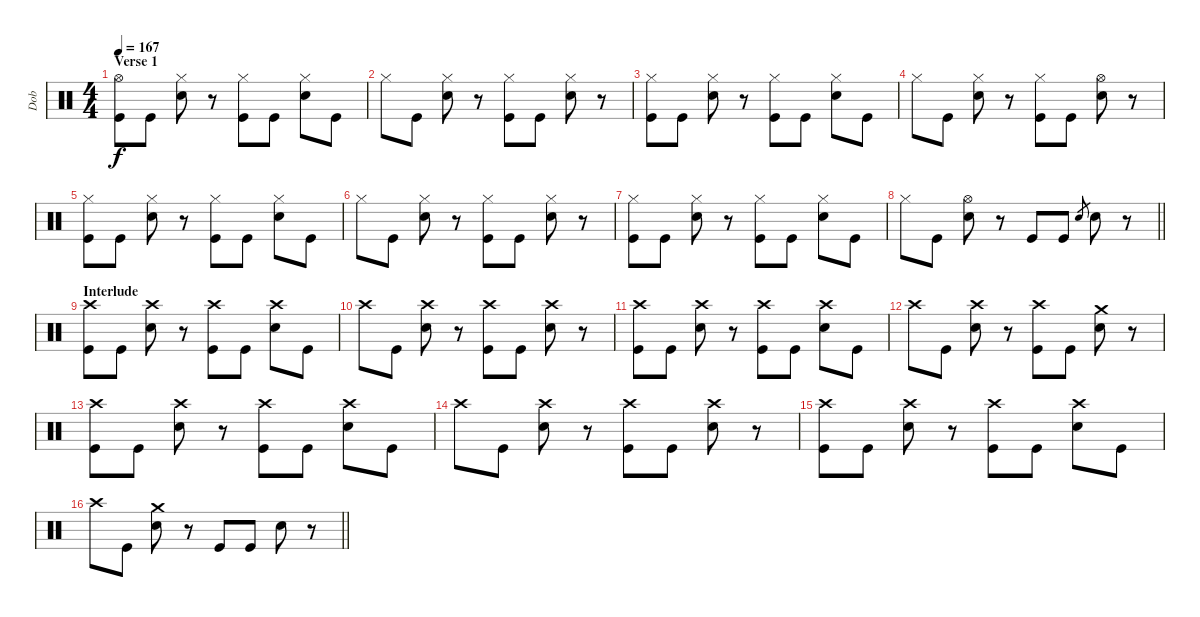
\track ("Dob" "Dob") {instrument percussion}
\staff {score}
\articulation defaults
\ts (4 4)
\section ("" "Verse 1")
\tempo 167
\clef neutral
\ks c
("Hi-Hat (open)" "Kick (hit)").8{dy f} "Kick (hit)".8 ("Hi-Hat (closed)" "Snare (hit) 2").8 r.8 ("Hi-Hat (closed)" "Kick (hit)").8 "Kick (hit)".8 ("Hi-Hat (closed)" "Snare (hit) 2").8 "Kick (hit)".8 |
"Hi-Hat (closed)".8 "Kick (hit)".8 ("Hi-Hat (closed)" "Snare (hit) 2").8 r.8 ("Hi-Hat (closed)" "Kick (hit)").8 "Kick (hit)".8 ("Hi-Hat (closed)" "Snare (hit) 2").8 r.8 |
("Hi-Hat (closed)" "Kick (hit)").8 "Kick (hit)".8 ("Hi-Hat (closed)" "Snare (hit) 2").8 r.8 ("Hi-Hat (closed)" "Kick (hit)").8 "Kick (hit)".8 ("Hi-Hat (closed)" "Snare (hit) 2").8 "Kick (hit)".8 |
"Hi-Hat (closed)".8 "Kick (hit)".8 ("Hi-Hat (closed)" "Snare (hit) 2").8 r.8 ("Hi-Hat (closed)" "Kick (hit)").8 "Kick (hit)".8 ("Hi-Hat (open)" "Snare (hit) 2").8 r.8 |
("Hi-Hat (closed)" "Kick (hit)").8 "Kick (hit)".8 ("Hi-Hat (closed)" "Snare (hit) 2").8 r.8 ("Hi-Hat (closed)" "Kick (hit)").8 "Kick (hit)".8 ("Hi-Hat (closed)" "Snare (hit) 2").8 "Kick (hit)".8 |
"Hi-Hat (closed)".8 "Kick (hit)".8 ("Hi-Hat (closed)" "Snare (hit) 2").8 r.8 ("Hi-Hat (closed)" "Kick (hit)").8 "Kick (hit)".8 ("Hi-Hat (closed)" "Snare (hit) 2").8 r.8 |
("Hi-Hat (closed)" "Kick (hit)").8 "Kick (hit)".8 ("Hi-Hat (closed)" "Snare (hit) 2").8 r.8 ("Hi-Hat (closed)" "Kick (hit)").8 "Kick (hit)".8 ("Hi-Hat (closed)" "Snare (hit) 2").8 "Kick (hit)".8 |
\barLineRight lightlight "Hi-Hat (closed)".8 "Kick (hit)".8
("Hi-Hat (open)" "Snare (hit) 2").8 r.8 "Kick (hit)".8 "Kick (hit)".8 "Snare (hit) 2".8{gr} "Snare (hit) 2".8 r.8 |
\section ("" "Interlude")
("Crash high (hit)" "Kick (hit)").8 "Kick (hit)".8 ("Crash high (hit)" "Snare (hit) 2").8 r.8 ("Crash high (hit)" "Kick (hit)").8 "Kick (hit)".8 ("Crash high (hit)" "Snare (hit) 2").8 "Kick (hit)".8 |
"Crash high (hit)".8 "Kick (hit)".8 ("Crash high (hit)" "Snare (hit) 2").8 r.8 ("Crash high (hit)" "Kick (hit)").8 "Kick (hit)".8 ("Crash high (hit)" "Snare (hit) 2").8 r.8 |
("Crash high (hit)" "Kick (hit)").8 "Kick (hit)".8 ("Crash high (hit)" "Snare (hit) 2").8 r.8 ("Crash high (hit)" "Kick (hit)").8 "Kick (hit)".8 ("Crash high (hit)" "Snare (hit) 2").8 "Kick (hit)".8 |
"Crash high (hit)".8 "Kick (hit)".8 ("Crash high (hit)" "Snare (hit) 2").8 r.8 ("Crash high (hit)" "Kick (hit)").8 "Kick (hit)".8 ("Crash medium (hit)" "Snare (hit) 2").8 r.8 |
("Crash high (hit)" "Kick (hit)").8 "Kick (hit)".8 ("Crash high (hit)" "Snare (hit) 2").8 r.8 ("Crash high (hit)" "Kick (hit)").8 "Kick (hit)".8 ("Crash high (hit)" "Snare (hit) 2").8 "Kick (hit)".8 |
"Crash high (hit)".8 "Kick (hit)".8 ("Crash high (hit)" "Snare (hit) 2").8 r.8 ("Crash high (hit)" "Kick (hit)").8 "Kick (hit)".8 ("Crash high (hit)" "Snare (hit) 2").8 r.8 |
("Crash high (hit)" "Kick (hit)").8 "Kick (hit)".8 ("Crash high (hit)" "Snare (hit) 2").8 r.8 ("Crash high (hit)" "Kick (hit)").8 "Kick (hit)".8 ("Crash high (hit)" "Snare (hit) 2").8 "Kick (hit)".8 |
\barLineRight lightlight "Crash high (hit)".8 "Kick (hit)".8
("Crash medium (hit)" "Snare (hit) 2").8 r.8 "Kick (hit)".8 "Kick (hit)".8 "Snare (hit) 2".8 r.8
